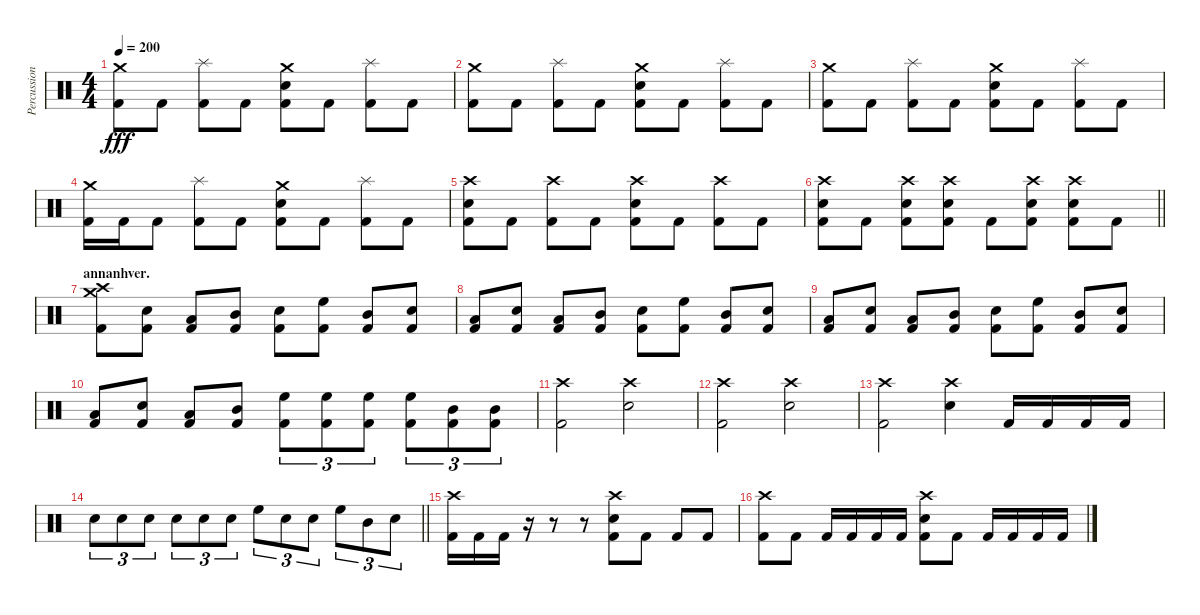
\track ("Percussion" "Percussion") {instrument percussion}
\staff {score}
\articulation defaults
\ts (4 4)
\tempo 200
\clef neutral
\ks c
("Crash medium (hit)" "Kick (hit) 2").8{dy fff} "Kick (hit) 2".8 ("Splash (hit)" "Kick (hit) 2").8 "Kick (hit) 2".8 ("Crash medium (hit)" "Snare (hit) 2" "Kick (hit) 2").8 "Kick (hit) 2".8 ("Splash (hit)" "Kick (hit) 2").8 "Kick (hit) 2".8 |
("Crash medium (hit)" "Kick (hit) 2").8 "Kick (hit) 2".8 ("Splash (hit)" "Kick (hit) 2").8 "Kick (hit) 2".8 ("Crash medium (hit)" "Snare (hit) 2" "Kick (hit) 2").8 "Kick (hit) 2".8 ("Splash (hit)" "Kick (hit) 2").8 "Kick (hit) 2".8 |
("Crash medium (hit)" "Kick (hit) 2").8 "Kick (hit) 2".8 ("Splash (hit)" "Kick (hit) 2").8 "Kick (hit) 2".8 ("Crash medium (hit)" "Snare (hit) 2" "Kick (hit) 2").8 "Kick (hit) 2".8 ("Splash (hit)" "Kick (hit) 2").8 "Kick (hit) 2".8 |
("Crash medium (hit)" "Kick (hit) 2").16 "Kick (hit) 2".16 "Kick (hit) 2".8 ("Splash (hit)" "Kick (hit) 2").8 "Kick (hit) 2".8 ("Crash medium (hit)" "Snare (hit) 2" "Kick (hit) 2").8 "Kick (hit) 2".8 ("Splash (hit)" "Kick (hit) 2").8 "Kick (hit) 2".8 |
("Crash high (hit)" "Snare (hit) 2" "Kick (hit) 2").8 "Kick (hit) 2".8 ("Crash high (hit)" "Kick (hit) 2").8 "Kick (hit) 2".8 ("Crash high (hit)" "Snare (hit) 2" "Kick (hit) 2").8 "Kick (hit) 2".8 ("Crash high (hit)" "Kick (hit) 2").8 "Kick (hit) 2".8 |
\barLineRight lightlight
("Crash high (hit)" "Snare (hit) 2" "Kick (hit) 2").8 "Kick (hit) 2".8 ("Crash high (hit)" "Snare (hit) 2" "Kick (hit) 2").8 ("Crash high (hit)" "Snare (hit) 2" "Kick (hit) 2").8 "Kick (hit) 2".8 ("Crash high (hit)" "Snare (hit) 2" "Kick (hit) 2").8 ("Crash high (hit)" "Snare (hit) 2" "Kick (hit) 2").8 "Kick (hit) 2".8 |
\section ("" "annanhver.")
("Crash medium (hit)" "Crash high (hit)" "Kick (hit) 2").8 ("Snare (hit) 2" "Kick (hit) 2").8 ("Low Floor Tom (hit)" "Kick (hit) 2").8 ("Mid Tom (hit)" "Kick (hit) 2").8 ("Snare (hit) 2" "Kick (hit) 2").8 ("High Floor Tom (hit)" "Kick (hit) 2").8 ("Mid Tom (hit)" "Kick (hit) 2").8 ("Snare (hit) 2" "Kick (hit) 2").8 |
("Low Floor Tom (hit)" "Kick (hit) 2").8 ("Snare (hit) 2" "Kick (hit) 2").8 ("Low Floor Tom (hit)" "Kick (hit) 2").8 ("Mid Tom (hit)" "Kick (hit) 2").8 ("Snare (hit) 2" "Kick (hit) 2").8 ("High Floor Tom (hit)" "Kick (hit) 2").8 ("Mid Tom (hit)" "Kick (hit) 2").8 ("Snare (hit) 2" "Kick (hit) 2").8 |
("Low Floor Tom (hit)" "Kick (hit) 2").8 ("Snare (hit) 2" "Kick (hit) 2").8 ("Low Floor Tom (hit)" "Kick (hit) 2").8 ("Mid Tom (hit)" "Kick (hit) 2").8 ("Snare (hit) 2" "Kick (hit) 2").8 ("High Floor Tom (hit)" "Kick (hit) 2").8 ("Mid Tom (hit)" "Kick (hit) 2").8 ("Snare (hit) 2" "Kick (hit) 2").8 |
("Low Floor Tom (hit)" "Kick (hit) 2").8 ("Snare (hit) 2" "Kick (hit) 2").8 ("Low Floor Tom (hit)" "Kick (hit) 2").8 ("Mid Tom (hit)" "Kick (hit) 2").8 ("High Floor Tom (hit)" "Kick (hit) 2").8{tu (3 2)} ("High Floor Tom (hit)" "Kick (hit) 2").8{tu (3 2)} ("High Floor Tom (hit)" "Kick (hit) 2").8{tu (3 2)} ("High Floor Tom (hit)" "Kick (hit) 2").8{tu (3 2)} ("Mid Tom (hit)" "Kick (hit) 2").8{tu (3 2)} ("Mid Tom (hit)" "Kick (hit) 2").8{tu (3 2)} |
("Crash high (hit)" "Kick (hit) 2").2 ("Crash high (hit)" "Snare (hit) 2").2 |
("Crash high (hit)" "Kick (hit) 2").2 ("Crash high (hit)" "Snare (hit) 2").2 |
("Crash high (hit)" "Kick (hit) 2").2 ("Crash high (hit)" "Snare (hit) 2").4 "Kick (hit) 2".16 "Kick (hit) 2".16 "Kick (hit) 2".16 "Kick (hit) 2".16 |
\barLineRight lightlight "Snare (hit) 2".8{tu (3 2)} "Snare (hit) 2".8{tu (3 2)} "Snare (hit) 2".8{tu (3 2)} "Snare (hit) 2".8{tu (3 2)} "Snare (hit) 2".8{tu (3 2)} "Snare (hit) 2".8{tu (3 2)} "High Floor Tom (hit)".8{tu (3 2)} "Snare (hit) 2".8{tu (3 2)} "Snare (hit) 2".8{tu (3 2)} "High Floor Tom (hit)".8{tu (3 2)} "Mid Tom (hit)".8{tu (3 2)} "Snare (hit) 2".8{tu (3 2)}
|
("Crash high (hit)" "Kick (hit) 2").16 "Kick (hit) 2".16 "Kick (hit) 2".16 r.16 r.8 r.8 ("Crash high (hit)" "Snare (hit) 2" "Kick (hit) 2").8 "Kick (hit) 2".8 "Kick (hit) 2".8 "Kick (hit) 2".8 |
("Crash high (hit)" "Kick (hit) 2").8 "Kick (hit) 2".8 "Kick (hit) 2".16 "Kick (hit) 2".16 "Kick (hit) 2".16 "Kick (hit) 2".16 ("Crash high (hit)" "Snare (hit) 2" "Kick (hit) 2").8 "Kick (hit) 2".8 "Kick (hit) 2".16 "Kick (hit) 2".16 "Kick (hit) 2".16 "Kick (hit) 2".16
